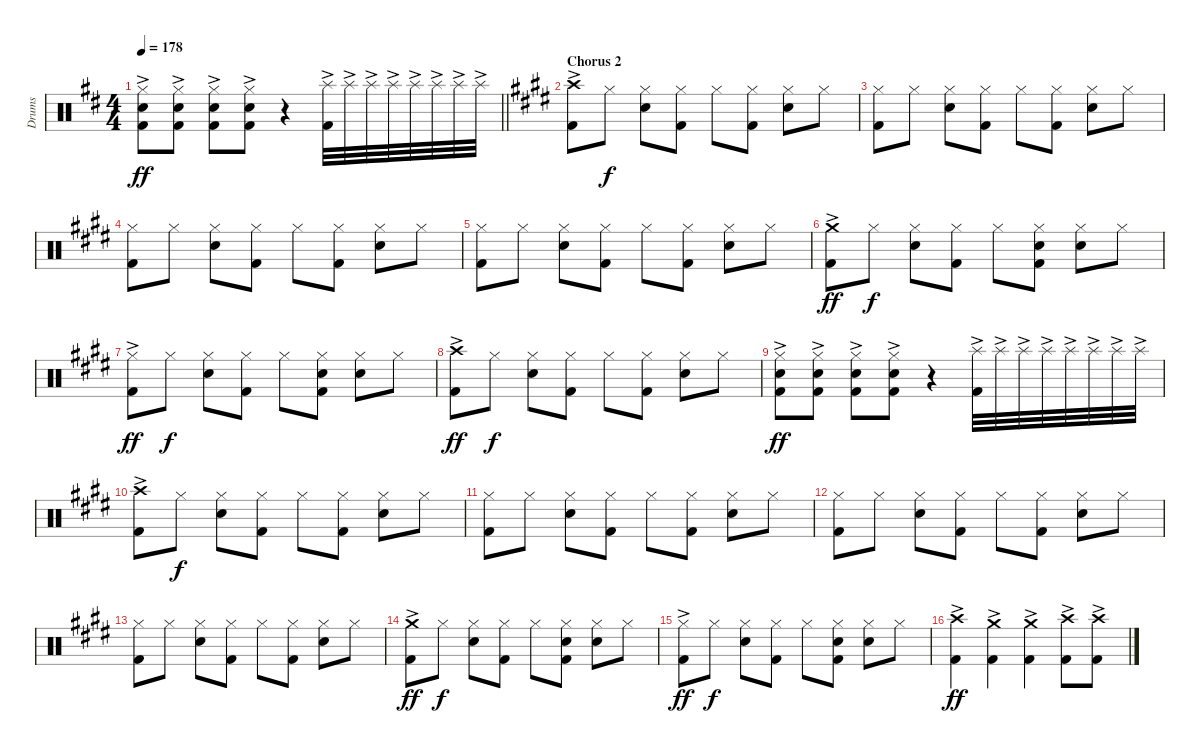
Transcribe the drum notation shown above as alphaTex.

\track ("Drums" "Drums") {instrument percussion}
\staff {score}
\articulation defaults
\ts (4 4)
\tempo 178
\clef neutral
\barLineRight lightlight
\ks d
("Hi-Hat (closed)"{ac} "Electric Snare (hit)"{ac} "Kick (hit) 2"{ac}).8{dy ff} ("Hi-Hat (closed)"{ac} "Electric Snare (hit)"{ac} "Kick (hit) 2"{ac}).8 ("Hi-Hat (closed)"{ac} "Electric Snare (hit)"{ac} "Kick (hit) 2"{ac}).8 ("Hi-Hat (closed)"{ac} "Electric Snare (hit)"{ac} "Kick (hit) 2"{ac}).8 r.4{volume 8} ("Splash (hit)"{ac} "Kick (hit) 2").32{volume 16} "Splash (hit)"{ac}.32 "Splash (hit)"{ac}.32 "Splash (hit)"{ac}.32 "Splash (hit)"{ac}.32 "Splash (hit)"{ac}.32 "Splash (hit)"{ac}.32 "Splash (hit)"{ac}.32 |
\section ("" "Chorus 2")
\ks e
("Crash high (hit)"{ac} "Kick (hit) 2").8 "Hi-Hat (closed)".8{dy f} ("Hi-Hat (closed)" "Electric Snare (hit)").8 ("Hi-Hat (closed)" "Kick (hit) 2").8 "Hi-Hat (closed)".8 ("Hi-Hat (closed)" "Kick (hit) 2").8 ("Hi-Hat (closed)" "Electric Snare (hit)").8 "Hi-Hat (closed)".8 |
("Hi-Hat (closed)" "Kick (hit) 2").8 "Hi-Hat (closed)".8 ("Hi-Hat (closed)" "Electric Snare (hit)").8 ("Hi-Hat (closed)" "Kick (hit) 2").8 "Hi-Hat (closed)".8 ("Hi-Hat (closed)" "Kick (hit) 2").8 ("Hi-Hat (closed)" "Electric Snare (hit)").8 "Hi-Hat (closed)".8 |
("Hi-Hat (closed)" "Kick (hit) 2").8 "Hi-Hat (closed)".8 ("Hi-Hat (closed)" "Electric Snare (hit)").8 ("Hi-Hat (closed)" "Kick (hit) 2").8 "Hi-Hat (closed)".8 ("Hi-Hat (closed)" "Kick (hit) 2").8 ("Hi-Hat (closed)" "Electric Snare (hit)").8 "Hi-Hat (closed)".8 |
("Hi-Hat (closed)" "Kick (hit) 2").8 "Hi-Hat (closed)".8 ("Hi-Hat (closed)" "Electric Snare (hit)").8 ("Hi-Hat (closed)" "Kick (hit) 2").8 "Hi-Hat (closed)".8 ("Hi-Hat (closed)" "Kick (hit) 2").8 ("Hi-Hat (closed)" "Electric Snare (hit)").8 "Hi-Hat (closed)".8 |
("Crash medium (hit)"{ac} "Kick (hit) 2").8{dy ff} "Hi-Hat (closed)".8{dy f} ("Hi-Hat (closed)" "Electric Snare (hit)").8 ("Hi-Hat (closed)" "Kick (hit) 2").8 "Hi-Hat (closed)".8 ("Hi-Hat (closed)" "Electric Snare (hit)" "Kick (hit) 2").8 ("Hi-Hat (closed)" "Electric Snare (hit)").8 "Hi-Hat (closed)".8 |
("Hi-Hat (closed)"{ac} "Kick (hit) 2").8{dy ff} "Hi-Hat (closed)".8{dy f} ("Hi-Hat (closed)" "Electric Snare (hit)").8 ("Hi-Hat (closed)" "Kick (hit) 2").8 "Hi-Hat (closed)".8 ("Hi-Hat (closed)" "Electric Snare (hit)" "Kick (hit) 2").8 ("Hi-Hat (closed)" "Electric Snare (hit)").8 "Hi-Hat (closed)".8 |
("Crash high (hit)"{ac} "Kick (hit) 2").8{dy ff} "Hi-Hat (closed)".8{dy f} ("Hi-Hat (closed)" "Electric Snare (hit)").8 ("Hi-Hat (closed)" "Kick (hit) 2").8 "Hi-Hat (closed)".8 ("Hi-Hat (closed)" "Kick (hit) 2").8 ("Hi-Hat (closed)" "Electric Snare (hit)").8 "Hi-Hat (closed)".8 |
("Hi-Hat (closed)"{ac} "Electric Snare (hit)"{ac} "Kick (hit) 2"{ac}).8{dy ff} ("Hi-Hat (closed)"{ac} "Electric Snare (hit)"{ac} "Kick (hit) 2"{ac}).8 ("Hi-Hat (closed)"{ac} "Electric Snare (hit)"{ac} "Kick (hit) 2"{ac}).8 ("Hi-Hat (closed)"{ac} "Electric Snare (hit)"{ac} "Kick (hit) 2"{ac}).8 r.4{volume 8} ("Splash (hit)"{ac} "Kick (hit) 2").32{volume 16} "Splash (hit)"{ac}.32 "Splash (hit)"{ac}.32 "Splash (hit)"{ac}.32 "Splash (hit)"{ac}.32 "Splash (hit)"{ac}.32 "Splash (hit)"{ac}.32 "Splash (hit)"{ac}.32 |
("Crash high (hit)"{ac} "Kick (hit) 2").8{volume 16} "Hi-Hat (closed)".8{dy f} ("Hi-Hat (closed)" "Electric Snare (hit)").8 ("Hi-Hat (closed)" "Kick (hit) 2").8 "Hi-Hat (closed)".8 ("Hi-Hat (closed)" "Kick (hit) 2").8 ("Hi-Hat (closed)" "Electric Snare (hit)").8 "Hi-Hat (closed)".8 |
("Hi-Hat (closed)" "Kick (hit) 2").8 "Hi-Hat (closed)".8 ("Hi-Hat (closed)" "Electric Snare (hit)").8 ("Hi-Hat (closed)" "Kick (hit) 2").8 "Hi-Hat (closed)".8 ("Hi-Hat (closed)" "Kick (hit) 2").8 ("Hi-Hat (closed)" "Electric Snare (hit)").8 "Hi-Hat (closed)".8 |
("Hi-Hat (closed)" "Kick (hit) 2").8 "Hi-Hat (closed)".8 ("Hi-Hat (closed)" "Electric Snare (hit)").8 ("Hi-Hat (closed)" "Kick (hit) 2").8 "Hi-Hat (closed)".8 ("Hi-Hat (closed)" "Kick (hit) 2").8 ("Hi-Hat (closed)" "Electric Snare (hit)").8 "Hi-Hat (closed)".8 |
("Hi-Hat (closed)" "Kick (hit) 2").8 "Hi-Hat (closed)".8 ("Hi-Hat (closed)" "Electric Snare (hit)").8 ("Hi-Hat (closed)" "Kick (hit) 2").8 "Hi-Hat (closed)".8 ("Hi-Hat (closed)" "Kick (hit) 2").8 ("Hi-Hat (closed)" "Electric Snare (hit)").8 "Hi-Hat (closed)".8 |
("Crash medium (hit)"{ac} "Kick (hit) 2").8{dy ff} "Hi-Hat (closed)".8{dy f} ("Hi-Hat (closed)" "Electric Snare (hit)").8 ("Hi-Hat (closed)" "Kick (hit) 2").8 "Hi-Hat (closed)".8 ("Hi-Hat (closed)" "Electric Snare (hit)" "Kick (hit) 2").8 ("Hi-Hat (closed)" "Electric Snare (hit)").8 "Hi-Hat (closed)".8 |
("Hi-Hat (closed)"{ac} "Kick (hit) 2").8{dy ff} "Hi-Hat (closed)".8{dy f} ("Hi-Hat (closed)" "Electric Snare (hit)").8 ("Hi-Hat (closed)" "Kick (hit) 2").8 "Hi-Hat (closed)".8 ("Hi-Hat (closed)" "Electric Snare (hit)" "Kick (hit) 2").8 ("Hi-Hat (closed)" "Electric Snare (hit)").8 "Hi-Hat (closed)".8 |
("Crash high (hit)"{ac} "Kick (hit) 2"{ac}).4{dy ff} ("Crash medium (hit)"{ac} "Kick (hit) 2"{ac}).4 ("Crash medium (hit)"{ac} "Kick (hit) 2"{ac}).4 ("Crash high (hit)"{ac} "Kick (hit) 2"{ac}).8 ("Crash high (hit)"{ac} "Kick (hit) 2"{ac}).8
